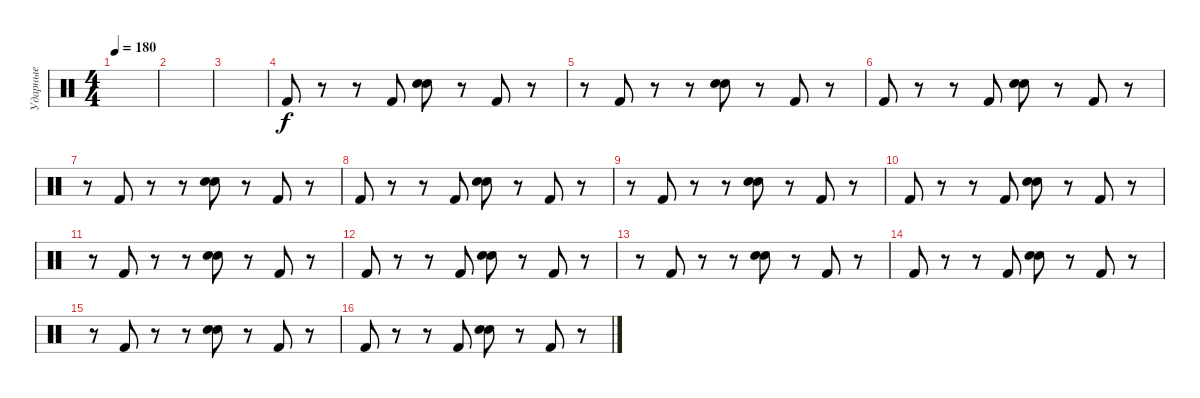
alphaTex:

\track ("Ударные" "Ударные") {instrument percussion}
\staff {score}
\articulation defaults
\ts (4 4)
\tempo 180
\clef neutral
\ks c
|
|
|
"Kick (hit) 2".8 r.8 r.8 "Kick (hit) 2".8 ("Snare (hit) 2" "Electric Snare (hit)").8 r.8 "Kick (hit) 2".8 r.8 |
r.8 "Kick (hit) 2".8 r.8 r.8 ("Snare (hit) 2" "Electric Snare (hit)").8 r.8 "Kick (hit) 2".8 r.8 |
"Kick (hit) 2".8 r.8 r.8 "Kick (hit) 2".8 ("Snare (hit) 2" "Electric Snare (hit)").8 r.8 "Kick (hit) 2".8 r.8 |
r.8 "Kick (hit) 2".8 r.8 r.8 ("Snare (hit) 2" "Electric Snare (hit)").8 r.8 "Kick (hit) 2".8 r.8 |
"Kick (hit) 2".8 r.8 r.8 "Kick (hit) 2".8 ("Snare (hit) 2" "Electric Snare (hit)").8 r.8 "Kick (hit) 2".8 r.8 |
r.8 "Kick (hit) 2".8 r.8 r.8 ("Snare (hit) 2" "Electric Snare (hit)").8 r.8 "Kick (hit) 2".8 r.8 |
"Kick (hit) 2".8 r.8 r.8 "Kick (hit) 2".8 ("Snare (hit) 2" "Electric Snare (hit)").8 r.8 "Kick (hit) 2".8 r.8 |
r.8 "Kick (hit) 2".8 r.8 r.8 ("Snare (hit) 2" "Electric Snare (hit)").8 r.8 "Kick (hit) 2".8 r.8 |
"Kick (hit) 2".8 r.8 r.8 "Kick (hit) 2".8 ("Snare (hit) 2" "Electric Snare (hit)").8 r.8 "Kick (hit) 2".8 r.8 |
r.8 "Kick (hit) 2".8 r.8 r.8 ("Snare (hit) 2" "Electric Snare (hit)").8 r.8 "Kick (hit) 2".8 r.8 |
"Kick (hit) 2".8 r.8 r.8 "Kick (hit) 2".8 ("Snare (hit) 2" "Electric Snare (hit)").8 r.8 "Kick (hit) 2".8 r.8 |
r.8 "Kick (hit) 2".8 r.8 r.8 ("Snare (hit) 2" "Electric Snare (hit)").8 r.8 "Kick (hit) 2".8 r.8 |
"Kick (hit) 2".8 r.8 r.8 "Kick (hit) 2".8 ("Snare (hit) 2" "Electric Snare (hit)").8 r.8 "Kick (hit) 2".8 r.8
